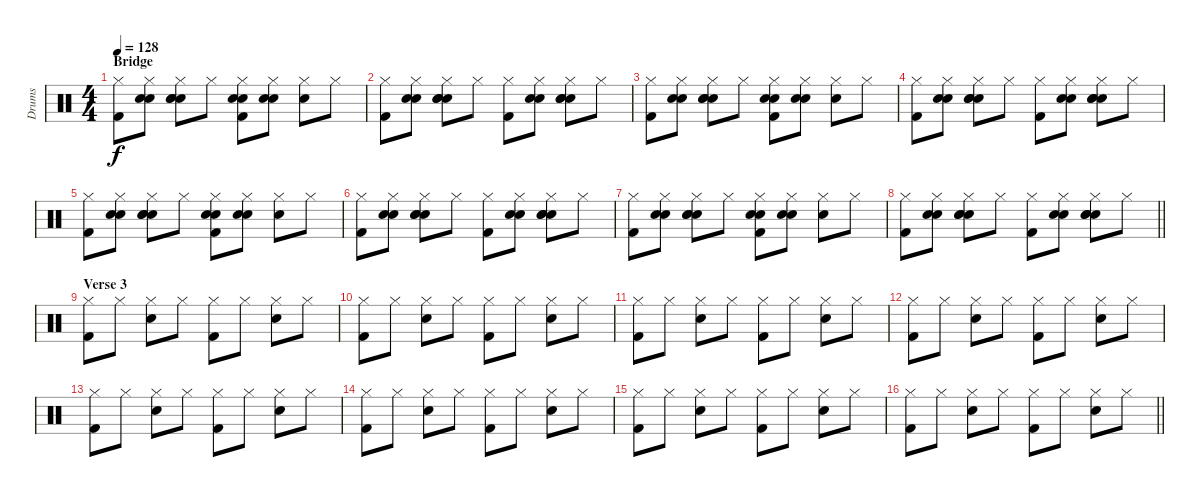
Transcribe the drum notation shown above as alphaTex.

\track ("Drums" "Drums") {instrument percussion}
\staff {score}
\articulation defaults
\ts (4 4)
\section ("" "Bridge")
\tempo 128
\clef neutral
\ks c
("Hi-Hat (closed)" "Kick (hit) 2").8{dy f} ("Hand Clap (hit)" "Hand Clap (hit)" "Hi-Hat (closed)").8 ("Hand Clap (hit)" "Hand Clap (hit)" "Hi-Hat (closed)" "Electric Snare (hit)").8 "Hi-Hat (closed)".8 ("Hand Clap (hit)" "Hand Clap (hit)" "Hi-Hat (closed)" "Kick (hit) 2").8 ("Hand Clap (hit)" "Hand Clap (hit)" "Hi-Hat (closed)").8 ("Hi-Hat (closed)" "Electric Snare (hit)").8 "Hi-Hat (closed)".8 |
("Hi-Hat (closed)" "Kick (hit) 2").8 ("Hand Clap (hit)" "Hand Clap (hit)" "Hi-Hat (closed)").8 ("Hand Clap (hit)" "Hand Clap (hit)" "Hi-Hat (closed)" "Electric Snare (hit)").8 "Hi-Hat (closed)".8 ("Hi-Hat (closed)" "Kick (hit) 2").8 ("Hand Clap (hit)" "Hand Clap (hit)" "Hi-Hat (closed)").8 ("Hand Clap (hit)" "Hand Clap (hit)" "Hi-Hat (closed)" "Electric Snare (hit)").8 "Hi-Hat (closed)".8 |
("Hi-Hat (closed)" "Kick (hit) 2").8 ("Hand Clap (hit)" "Hand Clap (hit)" "Hi-Hat (closed)").8 ("Hand Clap (hit)" "Hand Clap (hit)" "Hi-Hat (closed)" "Electric Snare (hit)").8 "Hi-Hat (closed)".8 ("Hand Clap (hit)" "Hand Clap (hit)" "Hi-Hat (closed)" "Kick (hit) 2").8 ("Hand Clap (hit)" "Hand Clap (hit)" "Hi-Hat (closed)").8 ("Hi-Hat (closed)" "Electric Snare (hit)").8 "Hi-Hat (closed)".8 |
("Hi-Hat (closed)" "Kick (hit) 2").8 ("Hand Clap (hit)" "Hand Clap (hit)" "Hi-Hat (closed)").8 ("Hand Clap (hit)" "Hand Clap (hit)" "Hi-Hat (closed)" "Electric Snare (hit)").8 "Hi-Hat (closed)".8 ("Hi-Hat (closed)" "Kick (hit) 2").8 ("Hand Clap (hit)" "Hand Clap (hit)" "Hi-Hat (closed)").8 ("Hand Clap (hit)" "Hand Clap (hit)" "Hi-Hat (closed)" "Electric Snare (hit)").8 "Hi-Hat (closed)".8 |
("Hi-Hat (closed)" "Kick (hit) 2").8 ("Hand Clap (hit)" "Hand Clap (hit)" "Hi-Hat (closed)").8 ("Hand Clap (hit)" "Hand Clap (hit)" "Hi-Hat (closed)" "Electric Snare (hit)").8 "Hi-Hat (closed)".8 ("Hand Clap (hit)" "Hand Clap (hit)" "Hi-Hat (closed)" "Kick (hit) 2").8 ("Hand Clap (hit)" "Hand Clap (hit)" "Hi-Hat (closed)").8 ("Hi-Hat (closed)" "Electric Snare (hit)").8 "Hi-Hat (closed)".8 |
("Hi-Hat (closed)" "Kick (hit) 2").8 ("Hand Clap (hit)" "Hand Clap (hit)" "Hi-Hat (closed)").8 ("Hand Clap (hit)" "Hand Clap (hit)" "Hi-Hat (closed)" "Electric Snare (hit)").8 "Hi-Hat (closed)".8 ("Hi-Hat (closed)" "Kick (hit) 2").8 ("Hand Clap (hit)" "Hand Clap (hit)" "Hi-Hat (closed)").8 ("Hand Clap (hit)" "Hand Clap (hit)" "Hi-Hat (closed)" "Electric Snare (hit)").8 "Hi-Hat (closed)".8 |
("Hi-Hat (closed)" "Kick (hit) 2").8 ("Hand Clap (hit)" "Hand Clap (hit)" "Hi-Hat (closed)").8 ("Hand Clap (hit)" "Hand Clap (hit)" "Hi-Hat (closed)" "Electric Snare (hit)").8 "Hi-Hat (closed)".8 ("Hand Clap (hit)" "Hand Clap (hit)" "Hi-Hat (closed)" "Kick (hit) 2").8 ("Hand Clap (hit)" "Hand Clap (hit)" "Hi-Hat (closed)").8 ("Hi-Hat (closed)" "Electric Snare (hit)").8 "Hi-Hat (closed)".8 |
\barLineRight lightlight
("Hi-Hat (closed)" "Kick (hit) 2").8 ("Hand Clap (hit)" "Hand Clap (hit)" "Hi-Hat (closed)").8 ("Hand Clap (hit)" "Hand Clap (hit)" "Hi-Hat (closed)" "Electric Snare (hit)").8 "Hi-Hat (closed)".8 ("Hi-Hat (closed)" "Kick (hit) 2").8 ("Hand Clap (hit)" "Hand Clap (hit)" "Hi-Hat (closed)").8 ("Hand Clap (hit)" "Hand Clap (hit)" "Hi-Hat (closed)" "Electric Snare (hit)").8 "Hi-Hat (closed)".8 |
\section ("" "Verse 3")
("Hi-Hat (closed)" "Kick (hit) 2").8 "Hi-Hat (closed)".8 ("Hi-Hat (closed)" "Electric Snare (hit)").8 "Hi-Hat (closed)".8 ("Hi-Hat (closed)" "Kick (hit) 2").8 "Hi-Hat (closed)".8 ("Hi-Hat (closed)" "Electric Snare (hit)").8 "Hi-Hat (closed)".8 |
("Hi-Hat (closed)" "Kick (hit) 2").8 "Hi-Hat (closed)".8 ("Hi-Hat (closed)" "Electric Snare (hit)").8 "Hi-Hat (closed)".8 ("Hi-Hat (closed)" "Kick (hit) 2").8 "Hi-Hat (closed)".8 ("Hi-Hat (closed)" "Electric Snare (hit)").8 "Hi-Hat (closed)".8 |
("Hi-Hat (closed)" "Kick (hit) 2").8 "Hi-Hat (closed)".8 ("Hi-Hat (closed)" "Electric Snare (hit)").8 "Hi-Hat (closed)".8 ("Hi-Hat (closed)" "Kick (hit) 2").8 "Hi-Hat (closed)".8 ("Hi-Hat (closed)" "Electric Snare (hit)").8 "Hi-Hat (closed)".8 |
("Hi-Hat (closed)" "Kick (hit) 2").8 "Hi-Hat (closed)".8 ("Hi-Hat (closed)" "Electric Snare (hit)").8 "Hi-Hat (closed)".8 ("Hi-Hat (closed)" "Kick (hit) 2").8 "Hi-Hat (closed)".8 ("Hi-Hat (closed)" "Electric Snare (hit)").8 "Hi-Hat (closed)".8 |
("Hi-Hat (closed)" "Kick (hit) 2").8 "Hi-Hat (closed)".8 ("Hi-Hat (closed)" "Electric Snare (hit)").8 "Hi-Hat (closed)".8 ("Hi-Hat (closed)" "Kick (hit) 2").8 "Hi-Hat (closed)".8 ("Hi-Hat (closed)" "Electric Snare (hit)").8 "Hi-Hat (closed)".8 |
("Hi-Hat (closed)" "Kick (hit) 2").8 "Hi-Hat (closed)".8 ("Hi-Hat (closed)" "Electric Snare (hit)").8 "Hi-Hat (closed)".8 ("Hi-Hat (closed)" "Kick (hit) 2").8 "Hi-Hat (closed)".8 ("Hi-Hat (closed)" "Electric Snare (hit)").8 "Hi-Hat (closed)".8 |
("Hi-Hat (closed)" "Kick (hit) 2").8 "Hi-Hat (closed)".8 ("Hi-Hat (closed)" "Electric Snare (hit)").8 "Hi-Hat (closed)".8 ("Hi-Hat (closed)" "Kick (hit) 2").8 "Hi-Hat (closed)".8 ("Hi-Hat (closed)" "Electric Snare (hit)").8 "Hi-Hat (closed)".8 |
\barLineRight lightlight
("Hi-Hat (closed)" "Kick (hit) 2").8 "Hi-Hat (closed)".8 ("Hi-Hat (closed)" "Electric Snare (hit)").8 "Hi-Hat (closed)".8 ("Hi-Hat (closed)" "Kick (hit) 2").8 "Hi-Hat (closed)".8 ("Hi-Hat (closed)" "Electric Snare (hit)").8 "Hi-Hat (closed)".8
